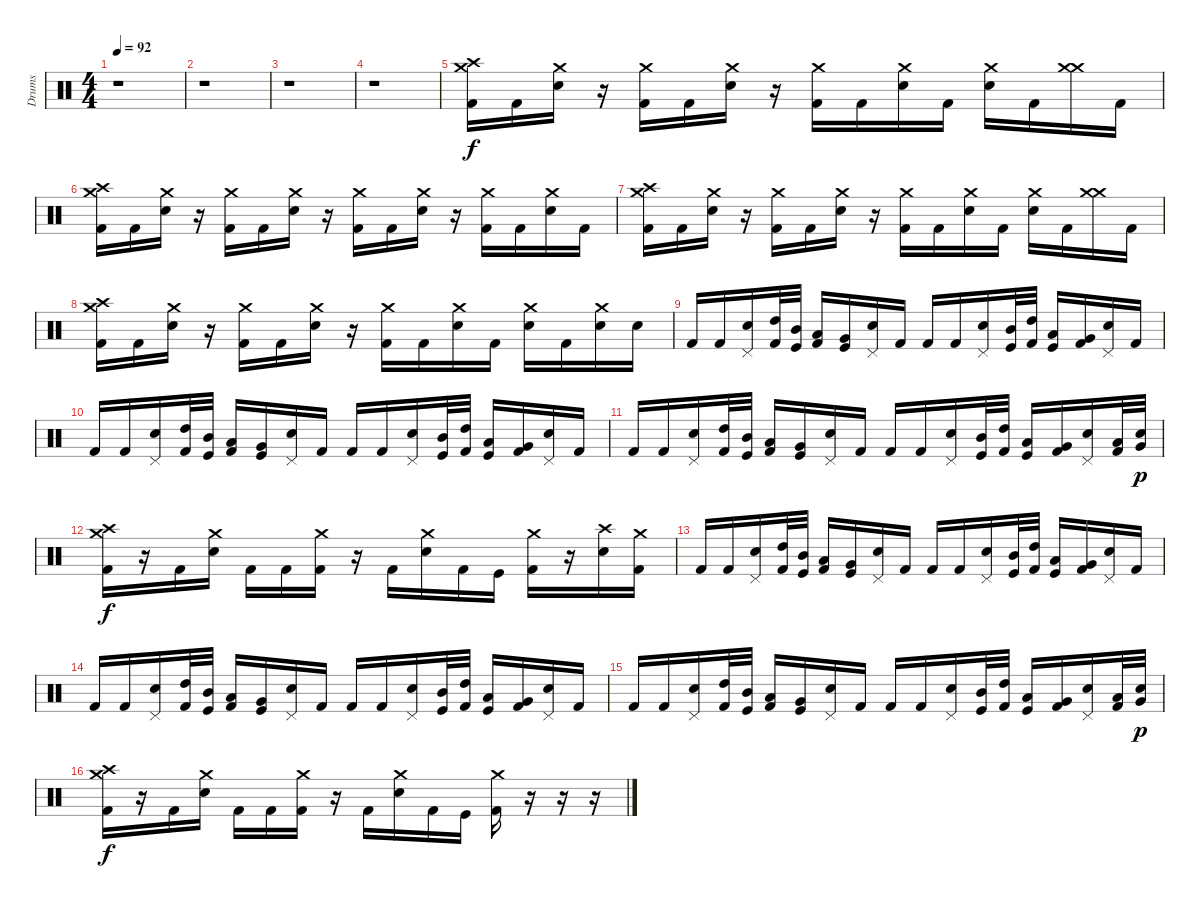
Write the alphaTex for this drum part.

\track ("Drums" "Drums") {instrument percussion}
\staff {score}
\articulation defaults
\ts (4 4)
\tempo 92
\clef neutral
\ks c
r.1{dy f} |
r.1 |
r.1 |
r.1 |
("Crash high (hit)" "Crash medium (hit)" "Kick (hit) 2").16 "Kick (hit) 2".16 ("Crash medium (hit)" "Electric Snare (hit)").16 r.16 ("Crash medium (hit)" "Kick (hit) 2").16 "Kick (hit) 2".16 ("Crash medium (hit)" "Electric Snare (hit)").16 r.16 ("Crash medium (hit)" "Kick (hit) 2").16 "Kick (hit) 2".16 ("Crash medium (hit)" "Electric Snare (hit)").16 "Kick (hit) 2".16 ("Crash medium (hit)" "Electric Snare (hit)").16 "Kick (hit) 2".16 ("Crash medium (hit)" "Crash medium (hit)").16 "Kick (hit) 2".16 |
("Crash high (hit)" "Crash medium (hit)" "Kick (hit) 2").16 "Kick (hit) 2".16 ("Crash medium (hit)" "Electric Snare (hit)").16 r.16 ("Crash medium (hit)" "Kick (hit) 2").16 "Kick (hit) 2".16 ("Crash medium (hit)" "Electric Snare (hit)").16 r.16 ("Crash medium (hit)" "Kick (hit) 2").16 "Kick (hit) 2".16 ("Crash medium (hit)" "Electric Snare (hit)").16 r.16 ("Crash medium (hit)" "Kick (hit) 2").16 "Kick (hit) 2".16 ("Crash medium (hit)" "Electric Snare (hit)").16 "Kick (hit) 2".16 |
("Crash high (hit)" "Crash medium (hit)" "Kick (hit) 2").16 "Kick (hit) 2".16 ("Crash medium (hit)" "Electric Snare (hit)").16 r.16 ("Crash medium (hit)" "Kick (hit) 2").16 "Kick (hit) 2".16 ("Crash medium (hit)" "Electric Snare (hit)").16 r.16 ("Crash medium (hit)" "Kick (hit) 2").16 "Kick (hit) 2".16 ("Crash medium (hit)" "Electric Snare (hit)").16 "Kick (hit) 2".16 ("Crash medium (hit)" "Electric Snare (hit)").16 "Kick (hit) 2".16 ("Crash medium (hit)" "Crash medium (hit)").16 "Kick (hit) 2".16 |
("Crash high (hit)" "Crash medium (hit)" "Kick (hit) 2").16 "Kick (hit) 2".16 ("Crash medium (hit)" "Electric Snare (hit)").16 r.16 ("Crash medium (hit)" "Kick (hit) 2").16 "Kick (hit) 2".16 ("Crash medium (hit)" "Electric Snare (hit)").16 r.16 ("Crash medium (hit)" "Kick (hit) 2").16 "Kick (hit) 2".16 ("Crash medium (hit)" "Electric Snare (hit)").16 "Kick (hit) 2".16 ("Crash medium (hit)" "Electric Snare (hit)").16 "Kick (hit) 2".16 ("Crash medium (hit)" "Electric Snare (hit)").16 "Electric Snare (hit)".16 |
"Kick (hit) 2".16 "Kick (hit) 2".16 ("Pedal Hi-Hat (hit)" "Electric Snare (hit)").16 ("High Tom (hit)" "Kick (hit) 2").32 ("Mid Tom (hit)" "Kick (hit)").32 ("Low Tom (hit)" "Kick (hit) 2").16 ("Very Low Tom (hit)" "Kick (hit)").16 ("Pedal Hi-Hat (hit)" "Electric Snare (hit)").16 "Kick (hit) 2".16 "Kick (hit) 2".16 "Kick (hit) 2".16 ("Pedal Hi-Hat (hit)" "Electric Snare (hit)").16 ("Mid Tom (hit)" "Kick (hit)").32 ("High Tom (hit)" "Kick (hit) 2").32 ("Low Tom (hit)" "Kick (hit)").16 ("Very Low Tom (hit)" "Kick (hit) 2").16 ("Pedal Hi-Hat (hit)" "Electric Snare (hit)").16 "Kick (hit) 2".16 |
"Kick (hit) 2".16 "Kick (hit) 2".16 ("Pedal Hi-Hat (hit)" "Electric Snare (hit)").16 ("High Tom (hit)" "Kick (hit) 2").32 ("Mid Tom (hit)" "Kick (hit)").32 ("Low Tom (hit)" "Kick (hit) 2").16 ("Very Low Tom (hit)" "Kick (hit)").16 ("Pedal Hi-Hat (hit)" "Electric Snare (hit)").16 "Kick (hit) 2".16 "Kick (hit) 2".16 "Kick (hit) 2".16 ("Pedal Hi-Hat (hit)" "Electric Snare (hit)").16 ("Mid Tom (hit)" "Kick (hit)").32 ("High Tom (hit)" "Kick (hit) 2").32 ("Low Tom (hit)" "Kick (hit)").16 ("Very Low Tom (hit)" "Kick (hit) 2").16 ("Pedal Hi-Hat (hit)" "Electric Snare (hit)").16 "Kick (hit) 2".16 |
"Kick (hit) 2".16 "Kick (hit) 2".16 ("Pedal Hi-Hat (hit)" "Electric Snare (hit)").16 ("High Tom (hit)" "Kick (hit) 2").32 ("Mid Tom (hit)" "Kick (hit)").32 ("Low Tom (hit)" "Kick (hit) 2").16 ("Very Low Tom (hit)" "Kick (hit)").16 ("Pedal Hi-Hat (hit)" "Electric Snare (hit)").16 "Kick (hit) 2".16 "Kick (hit) 2".16 "Kick (hit) 2".16 ("Pedal Hi-Hat (hit)" "Electric Snare (hit)").16 ("Mid Tom (hit)" "Kick (hit)").32 ("High Tom (hit)" "Kick (hit) 2").32 ("Low Tom (hit)" "Kick (hit)").16 ("Very Low Tom (hit)" "Kick (hit) 2").16 ("Pedal Hi-Hat (hit)" "Electric Snare (hit)").16 ("Kick (hit) 2" "Low Tom (hit)").32 ("Electric Snare (hit)" "Very Low Tom (hit)").32{dy p} |
("Crash high (hit)" "Crash medium (hit)" "Kick (hit) 2").16{dy f} r.16 "Kick (hit) 2".16 ("Crash medium (hit)" "Electric Snare (hit)").16 "Kick (hit) 2".16 "Kick (hit) 2".16 ("Crash medium (hit)" "Kick (hit) 2").16 r.16 "Kick (hit) 2".16 ("Crash medium (hit)" "Electric Snare (hit)").16 "Kick (hit) 2".16 "Kick (hit)".16 ("Crash medium (hit)" "Kick (hit) 2").16 r.16 ("Crash high (hit)" "Electric Snare (hit)").16 ("Crash medium (hit)" "Kick (hit) 2").16 |
"Kick (hit) 2".16 "Kick (hit) 2".16 ("Pedal Hi-Hat (hit)" "Electric Snare (hit)").16 ("High Tom (hit)" "Kick (hit) 2").32 ("Mid Tom (hit)" "Kick (hit)").32 ("Low Tom (hit)" "Kick (hit) 2").16 ("Very Low Tom (hit)" "Kick (hit)").16 ("Pedal Hi-Hat (hit)" "Electric Snare (hit)").16 "Kick (hit) 2".16 "Kick (hit) 2".16 "Kick (hit) 2".16 ("Pedal Hi-Hat (hit)" "Electric Snare (hit)").16 ("Mid Tom (hit)" "Kick (hit)").32 ("High Tom (hit)" "Kick (hit) 2").32 ("Low Tom (hit)" "Kick (hit)").16 ("Very Low Tom (hit)" "Kick (hit) 2").16 ("Pedal Hi-Hat (hit)" "Electric Snare (hit)").16 "Kick (hit) 2".16 |
"Kick (hit) 2".16 "Kick (hit) 2".16 ("Pedal Hi-Hat (hit)" "Electric Snare (hit)").16 ("High Tom (hit)" "Kick (hit) 2").32 ("Mid Tom (hit)" "Kick (hit)").32 ("Low Tom (hit)" "Kick (hit) 2").16 ("Very Low Tom (hit)" "Kick (hit)").16 ("Pedal Hi-Hat (hit)" "Electric Snare (hit)").16 "Kick (hit) 2".16 "Kick (hit) 2".16 "Kick (hit) 2".16 ("Pedal Hi-Hat (hit)" "Electric Snare (hit)").16 ("Mid Tom (hit)" "Kick (hit)").32 ("High Tom (hit)" "Kick (hit) 2").32 ("Low Tom (hit)" "Kick (hit)").16 ("Very Low Tom (hit)" "Kick (hit) 2").16 ("Pedal Hi-Hat (hit)" "Electric Snare (hit)").16 "Kick (hit) 2".16 |
"Kick (hit) 2".16 "Kick (hit) 2".16 ("Pedal Hi-Hat (hit)" "Electric Snare (hit)").16 ("High Tom (hit)" "Kick (hit) 2").32 ("Mid Tom (hit)" "Kick (hit)").32 ("Low Tom (hit)" "Kick (hit) 2").16 ("Very Low Tom (hit)" "Kick (hit)").16 ("Pedal Hi-Hat (hit)" "Electric Snare (hit)").16 "Kick (hit) 2".16 "Kick (hit) 2".16 "Kick (hit) 2".16 ("Pedal Hi-Hat (hit)" "Electric Snare (hit)").16 ("Mid Tom (hit)" "Kick (hit)").32 ("High Tom (hit)" "Kick (hit) 2").32 ("Low Tom (hit)" "Kick (hit)").16 ("Very Low Tom (hit)" "Kick (hit) 2").16 ("Pedal Hi-Hat (hit)" "Electric Snare (hit)").16 ("Kick (hit) 2" "Low Tom (hit)").32 ("Electric Snare (hit)" "Very Low Tom (hit)").32{dy p} |
("Crash high (hit)" "Crash medium (hit)" "Kick (hit) 2").16{dy f} r.16 "Kick (hit) 2".16 ("Crash medium (hit)" "Electric Snare (hit)").16 "Kick (hit) 2".16 "Kick (hit) 2".16 ("Crash medium (hit)" "Kick (hit) 2").16 r.16 "Kick (hit) 2".16 ("Crash medium (hit)" "Electric Snare (hit)").16 "Kick (hit) 2".16 "Kick (hit)".16 ("Crash medium (hit)" "Kick (hit) 2").16 r.16 r.16 r.16
